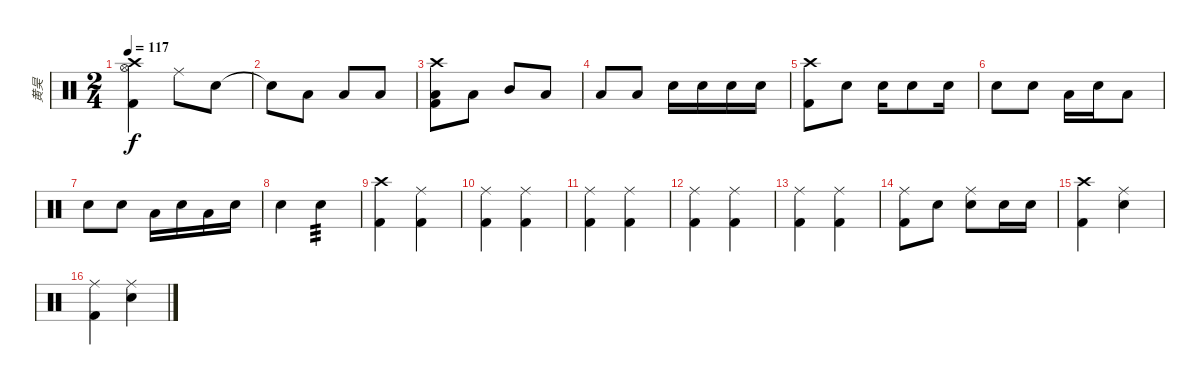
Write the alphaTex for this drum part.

\track ("黄昊" "黄昊") {instrument percussion}
\staff {score}
\articulation defaults
\ts (2 4)
\tempo 117
\clef neutral
\ks c
("Crash high (hit)" "Hi-Hat (open)" "Kick (hit) 2").4{dy f} "Ride (middle)".8 "Snare (hit) 2".8 |
"Snare (hit) 2"{t}.8 "Low Floor Tom (hit)".8 "Low Tom (hit)".8 "Low Floor Tom (hit)".8 |
("Crash high (hit)" "Low Floor Tom (hit)" "Kick (hit) 2").8 "Low Tom (hit)".8 "Mid Tom (hit)".8 "Low Tom (hit)".8 |
"Low Tom (hit)".8 "Low Floor Tom (hit)".8 "Snare (hit) 2".16 "Snare (hit) 2".16 "Snare (hit) 2".16 "Snare (hit) 2".16 |
("Crash high (hit)" "Kick (hit) 2").8 "Snare (hit) 2".8 "Snare (hit) 2".16 "Snare (hit) 2".8 "Snare (hit) 2".16 |
"Snare (hit) 2".8 "Snare (hit) 2".8 "Low Floor Tom (hit)".16 "Snare (hit) 2".16 "Low Floor Tom (hit)".8 |
"Snare (hit) 2".8 "Snare (hit) 2".8 "Low Floor Tom (hit)".16 "Snare (hit) 2".16 "Low Floor Tom (hit)".16 "Snare (hit) 2".16 |
"Snare (hit) 2".4 "Snare (hit) 2".4{tp 3 volume 9} |
("Crash high (hit)" "Kick (hit) 2").4{volume 15} ("Ride (middle)" "Kick (hit) 2").4 |
("Ride (middle)" "Kick (hit) 2").4 ("Ride (middle)" "Kick (hit) 2").4 |
("Ride (middle)" "Kick (hit) 2").4 ("Ride (middle)" "Kick (hit) 2").4 |
("Ride (middle)" "Kick (hit) 2").4 ("Ride (middle)" "Kick (hit) 2").4 |
("Ride (middle)" "Kick (hit) 2").4 ("Ride (middle)" "Kick (hit) 2").4 |
("Ride (middle)" "Kick (hit) 2").8 "Snare (hit) 2".8 ("Ride (middle)" "Snare (hit) 2").8 "Snare (hit) 2".16 "Snare (hit) 2".16 |
("Crash high (hit)" "Kick (hit) 2").4 ("Ride (middle)" "Snare (hit) 2").4 |
("Ride (middle)" "Kick (hit) 2").4 ("Ride (middle)" "Snare (hit) 2").4
